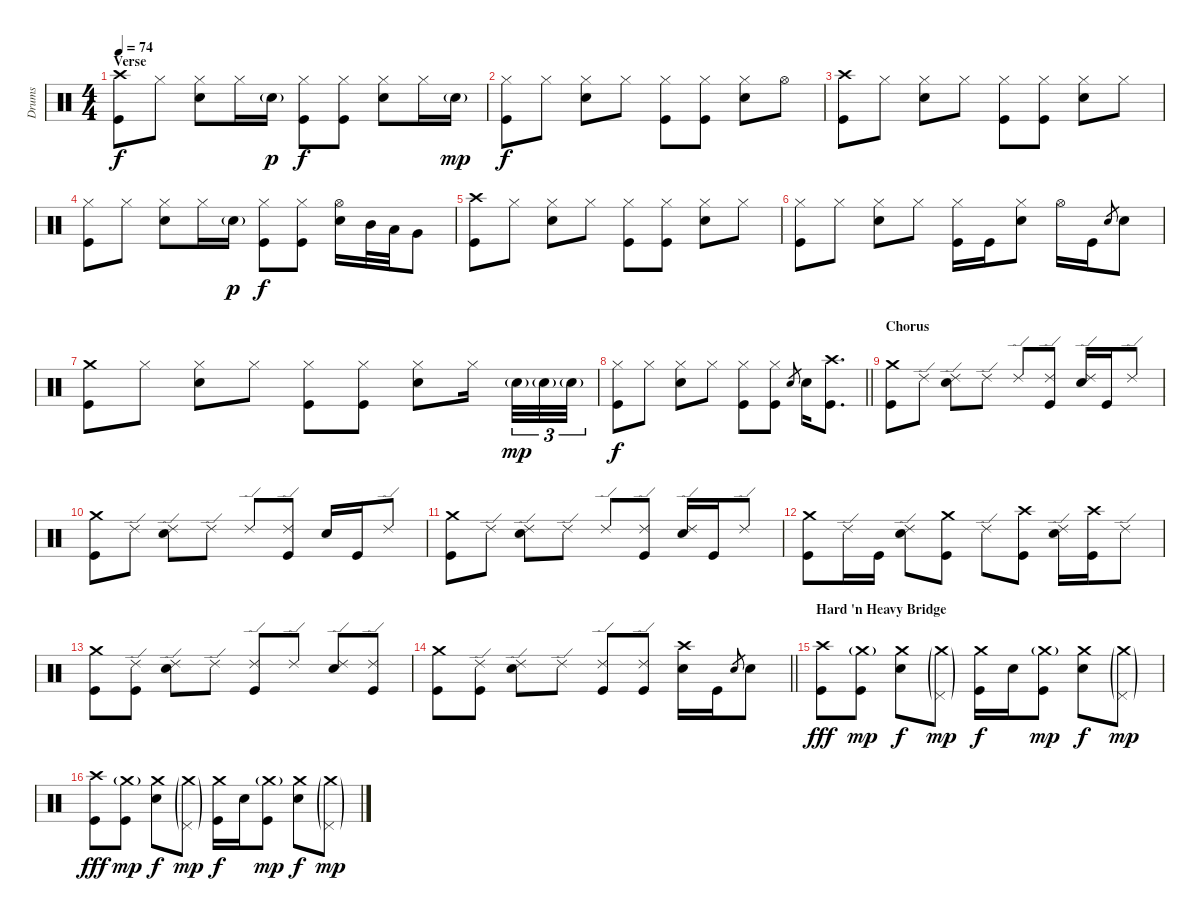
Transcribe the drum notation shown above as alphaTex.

\track ("Drums" "Drums") {instrument percussion}
\staff {score}
\articulation defaults
\ts (4 4)
\section ("" "Verse")
\tempo 74
\clef neutral
\ks c
("Crash high (hit)" "Kick (hit)").8{dy f} "Hi-Hat (closed)".8 ("Hi-Hat (closed)" "Snare (hit) 2").8 "Hi-Hat (closed)".16 "Snare (hit) 2"{g}.16{dy p} ("Hi-Hat (closed)" "Kick (hit)").8{dy f} ("Hi-Hat (closed)" "Kick (hit)").8 ("Hi-Hat (closed)" "Snare (hit) 2").8 "Hi-Hat (closed)".16 "Snare (hit) 2"{g}.16{dy mp} |
("Hi-Hat (closed)" "Kick (hit)").8{dy f} "Hi-Hat (closed)".8 ("Hi-Hat (closed)" "Snare (hit) 2").8 "Hi-Hat (closed)".8 ("Hi-Hat (closed)" "Kick (hit)").8 ("Hi-Hat (closed)" "Kick (hit)").8 ("Hi-Hat (closed)" "Snare (hit) 2").8 "Hi-Hat (open)".8 |
("Crash high (hit)" "Kick (hit)").8 "Hi-Hat (closed)".8 ("Hi-Hat (closed)" "Snare (hit) 2").8 "Hi-Hat (closed)".8 ("Hi-Hat (closed)" "Kick (hit)").8 ("Hi-Hat (closed)" "Kick (hit)").8 ("Hi-Hat (closed)" "Snare (hit) 2").8 "Hi-Hat (closed)".8 |
("Hi-Hat (closed)" "Kick (hit)").8 "Hi-Hat (closed)".8 ("Hi-Hat (closed)" "Snare (hit) 2").8 "Hi-Hat (closed)".16 "Snare (hit) 2"{g}.16{dy p} ("Hi-Hat (closed)" "Kick (hit)").8{dy f} ("Hi-Hat (closed)" "Kick (hit)").8 ("Hi-Hat (open)" "Snare (hit) 2").16 "Mid Tom (hit)".32 "Low Tom (hit)".32 "Very Low Tom (hit)".8 |
("Crash high (hit)" "Kick (hit)").8 "Hi-Hat (closed)".8 ("Hi-Hat (closed)" "Snare (hit) 2").8 "Hi-Hat (closed)".8 ("Hi-Hat (closed)" "Kick (hit)").8 ("Hi-Hat (closed)" "Kick (hit)").8 ("Hi-Hat (closed)" "Snare (hit) 2").8 "Hi-Hat (closed)".8 |
("Hi-Hat (closed)" "Kick (hit)").8 "Hi-Hat (closed)".8 ("Hi-Hat (closed)" "Snare (hit) 2").8 "Hi-Hat (closed)".8 ("Hi-Hat (closed)" "Kick (hit)").16 "Kick (hit)".16 ("Hi-Hat (closed)" "Snare (hit) 2").8 "Hi-Hat (open)".16 "Kick (hit)".16 "Electric Snare (hit)".8{gr} "Electric Snare (hit)".8 |
("Crash medium (hit)" "Kick (hit)").8 "Hi-Hat (closed)".8 ("Hi-Hat (closed)" "Snare (hit) 2").8 "Hi-Hat (closed)".8 ("Hi-Hat (closed)" "Kick (hit)").8 ("Hi-Hat (closed)" "Kick (hit)").8 ("Hi-Hat (closed)" "Snare (hit) 2").8 "Hi-Hat (closed)".16{beam splitsecondary} "Snare (hit) 2"{g}.32{tu (3 2) dy mp} "Snare (hit) 2"{g}.32{tu (3 2)} "Snare (hit) 2"{g}.32{tu (3 2)} |
\barLineRight lightlight
("Hi-Hat (closed)" "Kick (hit)").8{dy f} "Hi-Hat (closed)".8 ("Hi-Hat (closed)" "Snare (hit) 2").8 "Hi-Hat (closed)".8 ("Hi-Hat (closed)" "Kick (hit)").8 ("Hi-Hat (closed)" "Kick (hit)").8 "Electric Snare (hit)".8{gr} "Electric Snare (hit)".16 ("Crash high (hit)" "Kick (hit)").8{d} |
\section ("" "Chorus")
("Crash medium (hit)" "Kick (hit)").8 "Ride (edge) 2".8 ("Ride (edge) 2" "Snare (hit) 2").8 "Ride (edge) 2".8 "Ride (edge) 2".8 ("Ride (edge) 2" "Kick (hit)").8 ("Ride (edge) 2" "Snare (hit) 2").16 "Kick (hit)".16 "Ride (edge) 2".8 |
("Crash medium (hit)" "Kick (hit)").8 "Ride (edge) 2".8 ("Ride (edge) 2" "Snare (hit) 2").8 "Ride (edge) 2".8 "Ride (edge) 2".8 ("Ride (edge) 2" "Kick (hit)").8 "Snare (hit) 2".16 "Kick (hit)".16 "Ride (edge) 2".8 |
("Crash medium (hit)" "Kick (hit)").8 "Ride (edge) 2".8 ("Ride (edge) 2" "Snare (hit) 2").8 "Ride (edge) 2".8 "Ride (edge) 2".8 ("Ride (edge) 2" "Kick (hit)").8 ("Ride (edge) 2" "Snare (hit) 2").16 "Kick (hit)".16 "Ride (edge) 2".8 |
("Crash medium (hit)" "Kick (hit)").8 "Ride (edge) 2".16 "Kick (hit)".16 ("Ride (edge) 2" "Snare (hit) 2").8 ("Crash medium (hit)" "Kick (hit)").8 "Ride (edge) 2".8 ("Crash high (hit)" "Kick (hit)").8 ("Ride (edge) 2" "Snare (hit) 2").16 ("Crash high (hit)" "Kick (hit)").16 "Ride (edge) 2".8 |
("Crash medium (hit)" "Kick (hit)").8 ("Ride (edge) 2" "Kick (hit)").8 ("Ride (edge) 2" "Snare (hit) 2").8 "Ride (edge) 2".8 ("Ride (edge) 2" "Kick (hit)").8 "Ride (edge) 2".8 ("Ride (edge) 2" "Snare (hit) 2").8 ("Ride (edge) 2" "Kick (hit)").8 |
\barLineRight lightlight
("Crash medium (hit)" "Kick (hit)").8 ("Ride (edge) 2" "Kick (hit)").8 ("Ride (edge) 2" "Snare (hit) 2").8 "Ride (edge) 2".8 ("Ride (edge) 2" "Kick (hit)").8 ("Ride (edge) 2" "Kick (hit)").8 ("Crash high (hit)" "Electric Snare (hit)").16 "Kick (hit)".16 "Electric Snare (hit)".8{gr} "Electric Snare (hit)".8 |
\section ("" "Hard 'n Heavy Bridge")
("Crash high (hit)" "Kick (hit)").8{dy fff} ("Crash medium (hit)"{g} "Kick (hit)").8{dy mp} ("Crash medium (hit)" "Snare (hit) 2").8{dy f} ("Crash medium (hit)"{g} "Pedal Hi-Hat (hit)"{g}).8{dy mp} ("Crash medium (hit)" "Kick (hit)").16{dy f} "Snare (hit) 2".16 ("Crash medium (hit)"{g} "Kick (hit)").8{dy mp} ("Crash medium (hit)" "Snare (hit) 2").8{dy f} ("Crash medium (hit)"{g} "Pedal Hi-Hat (hit)"{g}).8{dy mp} |
("Crash high (hit)" "Kick (hit)").8{dy fff} ("Crash medium (hit)"{g} "Kick (hit)").8{dy mp} ("Crash medium (hit)" "Snare (hit) 2").8{dy f} ("Crash medium (hit)"{g} "Pedal Hi-Hat (hit)"{g}).8{dy mp} ("Crash medium (hit)" "Kick (hit)").16{dy f} "Snare (hit) 2".16 ("Crash medium (hit)"{g} "Kick (hit)").8{dy mp} ("Crash medium (hit)" "Snare (hit) 2").8{dy f} ("Crash medium (hit)"{g} "Pedal Hi-Hat (hit)"{g}).8{dy mp}
